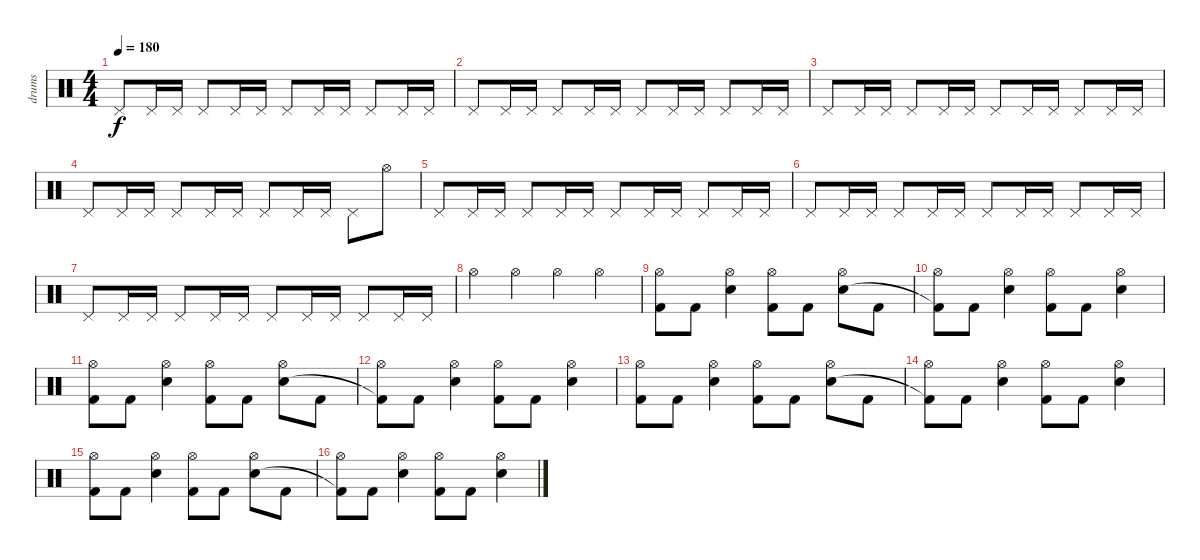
\track ("drums" "drums") {instrument percussion}
\staff {score}
\articulation defaults
\ts (4 4)
\tempo 180
\clef neutral
\ks c "Pedal Hi-Hat (hit)".8{dy f} "Pedal Hi-Hat (hit)".16 "Pedal Hi-Hat (hit)".16 "Pedal Hi-Hat (hit)".8 "Pedal Hi-Hat (hit)".16 "Pedal Hi-Hat (hit)".16 "Pedal Hi-Hat (hit)".8 "Pedal Hi-Hat (hit)".16 "Pedal Hi-Hat (hit)".16 "Pedal Hi-Hat (hit)".8 "Pedal Hi-Hat (hit)".16 "Pedal Hi-Hat (hit)".16
|
"Pedal Hi-Hat (hit)".8 "Pedal Hi-Hat (hit)".16 "Pedal Hi-Hat (hit)".16 "Pedal Hi-Hat (hit)".8 "Pedal Hi-Hat (hit)".16 "Pedal Hi-Hat (hit)".16 "Pedal Hi-Hat (hit)".8 "Pedal Hi-Hat (hit)".16 "Pedal Hi-Hat (hit)".16 "Pedal Hi-Hat (hit)".8 "Pedal Hi-Hat (hit)".16 "Pedal Hi-Hat (hit)".16 |
"Pedal Hi-Hat (hit)".8 "Pedal Hi-Hat (hit)".16 "Pedal Hi-Hat (hit)".16 "Pedal Hi-Hat (hit)".8 "Pedal Hi-Hat (hit)".16 "Pedal Hi-Hat (hit)".16 "Pedal Hi-Hat (hit)".8 "Pedal Hi-Hat (hit)".16 "Pedal Hi-Hat (hit)".16 "Pedal Hi-Hat (hit)".8 "Pedal Hi-Hat (hit)".16 "Pedal Hi-Hat (hit)".16 |
"Pedal Hi-Hat (hit)".8 "Pedal Hi-Hat (hit)".16 "Pedal Hi-Hat (hit)".16 "Pedal Hi-Hat (hit)".8 "Pedal Hi-Hat (hit)".16 "Pedal Hi-Hat (hit)".16 "Pedal Hi-Hat (hit)".8 "Pedal Hi-Hat (hit)".16 "Pedal Hi-Hat (hit)".16 "Pedal Hi-Hat (hit)".8 "Hi-Hat (open)".8 |
"Pedal Hi-Hat (hit)".8 "Pedal Hi-Hat (hit)".16 "Pedal Hi-Hat (hit)".16 "Pedal Hi-Hat (hit)".8 "Pedal Hi-Hat (hit)".16 "Pedal Hi-Hat (hit)".16 "Pedal Hi-Hat (hit)".8 "Pedal Hi-Hat (hit)".16 "Pedal Hi-Hat (hit)".16 "Pedal Hi-Hat (hit)".8 "Pedal Hi-Hat (hit)".16 "Pedal Hi-Hat (hit)".16 |
"Pedal Hi-Hat (hit)".8 "Pedal Hi-Hat (hit)".16 "Pedal Hi-Hat (hit)".16 "Pedal Hi-Hat (hit)".8 "Pedal Hi-Hat (hit)".16 "Pedal Hi-Hat (hit)".16 "Pedal Hi-Hat (hit)".8 "Pedal Hi-Hat (hit)".16 "Pedal Hi-Hat (hit)".16 "Pedal Hi-Hat (hit)".8 "Pedal Hi-Hat (hit)".16 "Pedal Hi-Hat (hit)".16 |
"Pedal Hi-Hat (hit)".8 "Pedal Hi-Hat (hit)".16 "Pedal Hi-Hat (hit)".16 "Pedal Hi-Hat (hit)".8 "Pedal Hi-Hat (hit)".16 "Pedal Hi-Hat (hit)".16 "Pedal Hi-Hat (hit)".8 "Pedal Hi-Hat (hit)".16 "Pedal Hi-Hat (hit)".16 "Pedal Hi-Hat (hit)".8 "Pedal Hi-Hat (hit)".16 "Pedal Hi-Hat (hit)".16 |
"Hi-Hat (open)".4 "Hi-Hat (open)".4 "Hi-Hat (open)".4 "Hi-Hat (open)".4 |
("Hi-Hat (open)" "Kick (hit) 2").8 "Kick (hit) 2".8 ("Hi-Hat (open)" "Electric Snare (hit)").4 ("Hi-Hat (open)" "Kick (hit) 2").8 "Kick (hit) 2".8 ("Hi-Hat (open)" "Electric Snare (hit)").8 "Kick (hit) 2".8 |
("Hi-Hat (open)" "Kick (hit) 2"{t}).8 "Kick (hit) 2".8 ("Hi-Hat (open)" "Electric Snare (hit)").4 ("Hi-Hat (open)" "Kick (hit) 2").8 "Kick (hit) 2".8 ("Hi-Hat (open)" "Electric Snare (hit)").4 |
("Hi-Hat (open)" "Kick (hit) 2").8 "Kick (hit) 2".8 ("Hi-Hat (open)" "Electric Snare (hit)").4 ("Hi-Hat (open)" "Kick (hit) 2").8 "Kick (hit) 2".8 ("Hi-Hat (open)" "Electric Snare (hit)").8 "Kick (hit) 2".8 |
("Hi-Hat (open)" "Kick (hit) 2"{t}).8 "Kick (hit) 2".8 ("Hi-Hat (open)" "Electric Snare (hit)").4 ("Hi-Hat (open)" "Kick (hit) 2").8 "Kick (hit) 2".8 ("Hi-Hat (open)" "Electric Snare (hit)").4 |
("Hi-Hat (open)" "Kick (hit) 2").8 "Kick (hit) 2".8 ("Hi-Hat (open)" "Electric Snare (hit)").4 ("Hi-Hat (open)" "Kick (hit) 2").8 "Kick (hit) 2".8 ("Hi-Hat (open)" "Electric Snare (hit)").8 "Kick (hit) 2".8 |
("Hi-Hat (open)" "Kick (hit) 2"{t}).8 "Kick (hit) 2".8 ("Hi-Hat (open)" "Electric Snare (hit)").4 ("Hi-Hat (open)" "Kick (hit) 2").8 "Kick (hit) 2".8 ("Hi-Hat (open)" "Electric Snare (hit)").4 |
("Hi-Hat (open)" "Kick (hit) 2").8 "Kick (hit) 2".8 ("Hi-Hat (open)" "Electric Snare (hit)").4 ("Hi-Hat (open)" "Kick (hit) 2").8 "Kick (hit) 2".8 ("Hi-Hat (open)" "Electric Snare (hit)").8 "Kick (hit) 2".8 |
("Hi-Hat (open)" "Kick (hit) 2"{t}).8 "Kick (hit) 2".8 ("Hi-Hat (open)" "Electric Snare (hit)").4 ("Hi-Hat (open)" "Kick (hit) 2").8 "Kick (hit) 2".8 ("Hi-Hat (open)" "Electric Snare (hit)").4
